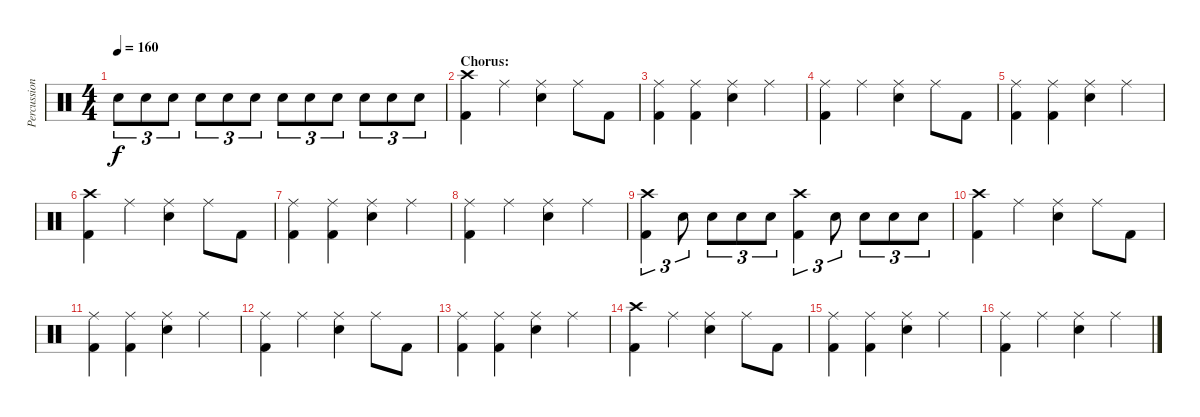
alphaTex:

\track ("Percussion" "Percussion") {instrument percussion}
\staff {score}
\articulation defaults
\ts (4 4)
\tempo 160
\clef neutral
\ks c "Electric Snare (hit)".8{tu (3 2) dy f} "Electric Snare (hit)".8{tu (3 2)} "Electric Snare (hit)".8{tu (3 2)} "Electric Snare (hit)".8{tu (3 2)} "Electric Snare (hit)".8{tu (3 2)} "Electric Snare (hit)".8{tu (3 2)} "Electric Snare (hit)".8{tu (3 2)} "Electric Snare (hit)".8{tu (3 2)} "Electric Snare (hit)".8{tu (3 2)} "Electric Snare (hit)".8{tu (3 2)} "Electric Snare (hit)".8{tu (3 2)} "Electric Snare (hit)".8{tu (3 2)}
|
\section ("" "Chorus:")
("Crash high (hit)" "Kick (hit) 2").4 "Ride (middle)".4 ("Ride (middle)" "Electric Snare (hit)").4 "Ride (middle)".8 "Kick (hit) 2".8 |
("Ride (middle)" "Kick (hit) 2").4 ("Ride (middle)" "Kick (hit) 2").4 ("Ride (middle)" "Electric Snare (hit)").4 "Ride (middle)".4 |
("Ride (middle)" "Kick (hit) 2").4 "Ride (middle)".4 ("Ride (middle)" "Electric Snare (hit)").4 "Ride (middle)".8 "Kick (hit) 2".8 |
("Ride (middle)" "Kick (hit) 2").4 ("Ride (middle)" "Kick (hit) 2").4 ("Ride (middle)" "Electric Snare (hit)").4 "Ride (middle)".4 |
("Crash high (hit)" "Kick (hit) 2").4 "Ride (middle)".4 ("Ride (middle)" "Electric Snare (hit)").4 "Ride (middle)".8 "Kick (hit) 2".8 |
("Ride (middle)" "Kick (hit) 2").4 ("Ride (middle)" "Kick (hit) 2").4 ("Ride (middle)" "Electric Snare (hit)").4 "Ride (middle)".4 |
("Ride (middle)" "Kick (hit) 2").4 "Ride (middle)".4 ("Ride (middle)" "Electric Snare (hit)").4 "Ride (middle)".4 |
("Crash high (hit)" "Kick (hit) 2").4{tu (3 2)} "Electric Snare (hit)".8{tu (3 2)} "Electric Snare (hit)".8{tu (3 2)} "Electric Snare (hit)".8{tu (3 2)} "Electric Snare (hit)".8{tu (3 2)} ("Crash high (hit)" "Kick (hit) 2").4{tu (3 2)} "Electric Snare (hit)".8{tu (3 2)} "Electric Snare (hit)".8{tu (3 2)} "Electric Snare (hit)".8{tu (3 2)} "Electric Snare (hit)".8{tu (3 2)} |
("Crash high (hit)" "Kick (hit) 2").4 "Ride (middle)".4 ("Ride (middle)" "Electric Snare (hit)").4 "Ride (middle)".8 "Kick (hit) 2".8 |
("Ride (middle)" "Kick (hit) 2").4 ("Ride (middle)" "Kick (hit) 2").4 ("Ride (middle)" "Electric Snare (hit)").4 "Ride (middle)".4 |
("Ride (middle)" "Kick (hit) 2").4 "Ride (middle)".4 ("Ride (middle)" "Electric Snare (hit)").4 "Ride (middle)".8 "Kick (hit) 2".8 |
("Ride (middle)" "Kick (hit) 2").4 ("Ride (middle)" "Kick (hit) 2").4 ("Ride (middle)" "Electric Snare (hit)").4 "Ride (middle)".4 |
("Crash high (hit)" "Kick (hit) 2").4 "Ride (middle)".4 ("Ride (middle)" "Electric Snare (hit)").4 "Ride (middle)".8 "Kick (hit) 2".8 |
("Ride (middle)" "Kick (hit) 2").4 ("Ride (middle)" "Kick (hit) 2").4 ("Ride (middle)" "Electric Snare (hit)").4 "Ride (middle)".4 |
("Ride (middle)" "Kick (hit) 2").4 "Ride (middle)".4 ("Ride (middle)" "Electric Snare (hit)").4 "Ride (middle)".4
